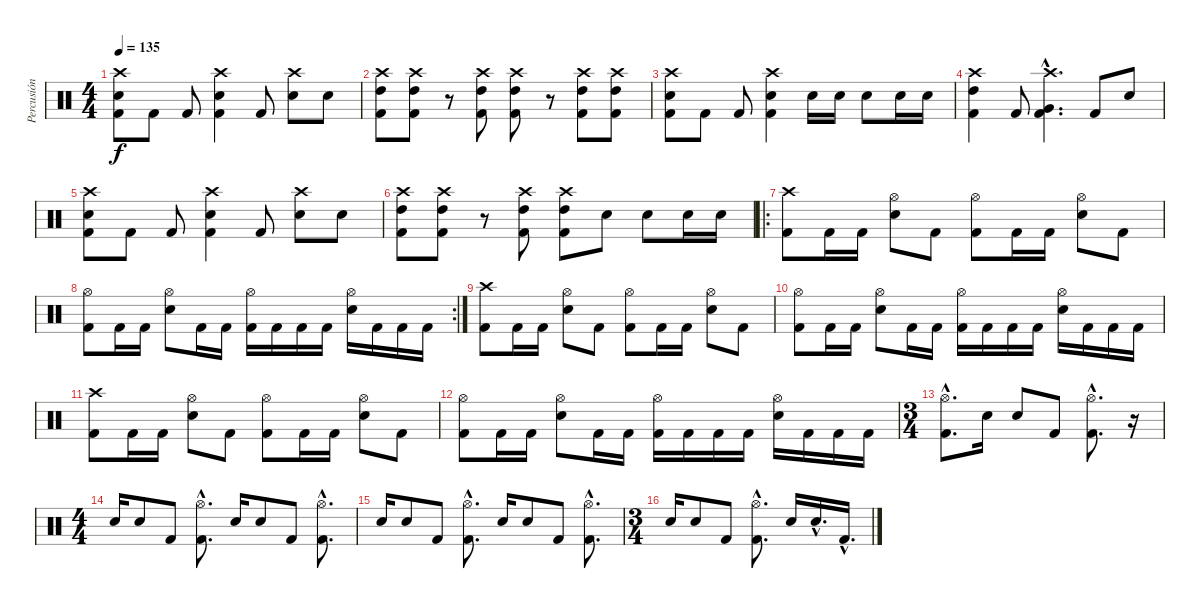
\track ("Percusión" "Percusión") {instrument percussion}
\staff {score}
\articulation defaults
\ts (4 4)
\tempo 135
\clef neutral
\ks c
("Crash high (hit)" "Electric Snare (hit)" "Kick (hit) 2").8{dy f} "Kick (hit) 2".8 "Kick (hit) 2".8 ("Crash high (hit)" "Electric Snare (hit)" "Kick (hit) 2").4 "Kick (hit) 2".8 ("Crash high (hit)" "Electric Snare (hit)").8 "Electric Snare (hit)".8 |
("Crash high (hit)" "High Tom (hit)" "Kick (hit) 2").8 ("Crash high (hit)" "High Tom (hit)" "Kick (hit) 2").8 r.8 ("Crash high (hit)" "High Tom (hit)" "Kick (hit) 2").8 ("Crash high (hit)" "High Tom (hit)" "Kick (hit) 2").8 r.8 ("Crash high (hit)" "High Tom (hit)" "Kick (hit) 2").8 ("Crash high (hit)" "High Tom (hit)" "Kick (hit) 2").8 |
("Crash high (hit)" "Electric Snare (hit)" "Kick (hit) 2").8 "Kick (hit) 2".8 "Kick (hit) 2".8 ("Crash high (hit)" "Electric Snare (hit)" "Kick (hit) 2").4 "Electric Snare (hit)".16 "Electric Snare (hit)".16 "Electric Snare (hit)".8 "Electric Snare (hit)".16 "Electric Snare (hit)".16 |
("Crash high (hit)" "High Tom (hit)" "Kick (hit) 2").4 "Kick (hit) 2".8 ("Crash high (hit)"{hac} "Very Low Tom (hit)"{hac} "Kick (hit) 2"{hac}).4{d} "Kick (hit) 2".8 "Electric Snare (hit)".8 |
("Crash high (hit)" "Electric Snare (hit)" "Kick (hit) 2").8 "Kick (hit) 2".8 "Kick (hit) 2".8 ("Crash high (hit)" "Electric Snare (hit)" "Kick (hit) 2").4 "Kick (hit) 2".8 ("Crash high (hit)" "Electric Snare (hit)").8 "Electric Snare (hit)".8 |
("Crash high (hit)" "High Tom (hit)" "Kick (hit) 2").8 ("Crash high (hit)" "High Tom (hit)" "Kick (hit) 2").8 r.8 ("Crash high (hit)" "High Tom (hit)" "Kick (hit) 2").8 ("Crash high (hit)" "High Tom (hit)" "Kick (hit) 2").8 "Electric Snare (hit)".8 "Electric Snare (hit)".8 "Electric Snare (hit)".16 "Electric Snare (hit)".16 |
\ro
("Crash high (hit)" "Kick (hit) 2").8 "Kick (hit) 2".16 "Kick (hit) 2".16 ("Hi-Hat (open)" "Electric Snare (hit)").8 "Kick (hit) 2".8 ("Hi-Hat (open)" "Kick (hit) 2").8 "Kick (hit) 2".16 "Kick (hit) 2".16 ("Hi-Hat (open)" "Electric Snare (hit)").8 "Kick (hit) 2".8 |
\rc 2
("Hi-Hat (open)" "Kick (hit) 2").8 "Kick (hit) 2".16 "Kick (hit) 2".16 ("Hi-Hat (open)" "Electric Snare (hit)").8 "Kick (hit) 2".16 "Kick (hit) 2".16 ("Hi-Hat (open)" "Kick (hit) 2").16 "Kick (hit) 2".16 "Kick (hit) 2".16 "Kick (hit) 2".16 ("Hi-Hat (open)" "Electric Snare (hit)").16 "Kick (hit) 2".16 "Kick (hit) 2".16 "Kick (hit) 2".16 |
("Crash high (hit)" "Kick (hit) 2").8 "Kick (hit) 2".16 "Kick (hit) 2".16 ("Hi-Hat (open)" "Electric Snare (hit)").8 "Kick (hit) 2".8 ("Hi-Hat (open)" "Kick (hit) 2").8 "Kick (hit) 2".16 "Kick (hit) 2".16 ("Hi-Hat (open)" "Electric Snare (hit)").8 "Kick (hit) 2".8 |
("Hi-Hat (open)" "Kick (hit) 2").8 "Kick (hit) 2".16 "Kick (hit) 2".16 ("Hi-Hat (open)" "Electric Snare (hit)").8 "Kick (hit) 2".16 "Kick (hit) 2".16 ("Hi-Hat (open)" "Kick (hit) 2").16 "Kick (hit) 2".16 "Kick (hit) 2".16 "Kick (hit) 2".16 ("Hi-Hat (open)" "Electric Snare (hit)").16 "Kick (hit) 2".16 "Kick (hit) 2".16 "Kick (hit) 2".16 |
("Crash high (hit)" "Kick (hit) 2").8 "Kick (hit) 2".16 "Kick (hit) 2".16 ("Hi-Hat (open)" "Electric Snare (hit)").8 "Kick (hit) 2".8 ("Hi-Hat (open)" "Kick (hit) 2").8 "Kick (hit) 2".16 "Kick (hit) 2".16 ("Hi-Hat (open)" "Electric Snare (hit)").8 "Kick (hit) 2".8 |
("Hi-Hat (open)" "Kick (hit) 2").8 "Kick (hit) 2".16 "Kick (hit) 2".16 ("Hi-Hat (open)" "Electric Snare (hit)").8 "Kick (hit) 2".16 "Kick (hit) 2".16 ("Hi-Hat (open)" "Kick (hit) 2").16 "Kick (hit) 2".16 "Kick (hit) 2".16 "Kick (hit) 2".16 ("Hi-Hat (open)" "Electric Snare (hit)").16 "Kick (hit) 2".16 "Kick (hit) 2".16 "Kick (hit) 2".16 |
\ts (3 4)
("Hi-Hat (open)"{hac} "Kick (hit) 2"{hac}).8{d} "Electric Snare (hit)".16 "Electric Snare (hit)".8 "Kick (hit) 2".8 ("Hi-Hat (open)"{hac} "Kick (hit) 2"{hac}).8{d} r.16 |
\ts (4 4)
"Electric Snare (hit)".16 "Electric Snare (hit)".8 "Kick (hit) 2".8 ("Hi-Hat (open)"{hac} "Kick (hit) 2"{hac}).8{d} "Electric Snare (hit)".16 "Electric Snare (hit)".8 "Kick (hit) 2".8 ("Hi-Hat (open)"{hac} "Kick (hit) 2"{hac}).8{d} |
"Electric Snare (hit)".16 "Electric Snare (hit)".8 "Kick (hit) 2".8 ("Hi-Hat (open)"{hac} "Kick (hit) 2"{hac}).8{d} "Electric Snare (hit)".16 "Electric Snare (hit)".8 "Kick (hit) 2".8 ("Hi-Hat (open)"{hac} "Kick (hit) 2"{hac}).8{d} |
\ts (3 4)
"Electric Snare (hit)".16 "Electric Snare (hit)".8 "Kick (hit) 2".8 ("Hi-Hat (open)"{hac} "Kick (hit) 2"{hac}).8{d} "Electric Snare (hit)".16 "Electric Snare (hit)"{hac}.16{d} "Kick (hit) 2"{hac}.16{d}
